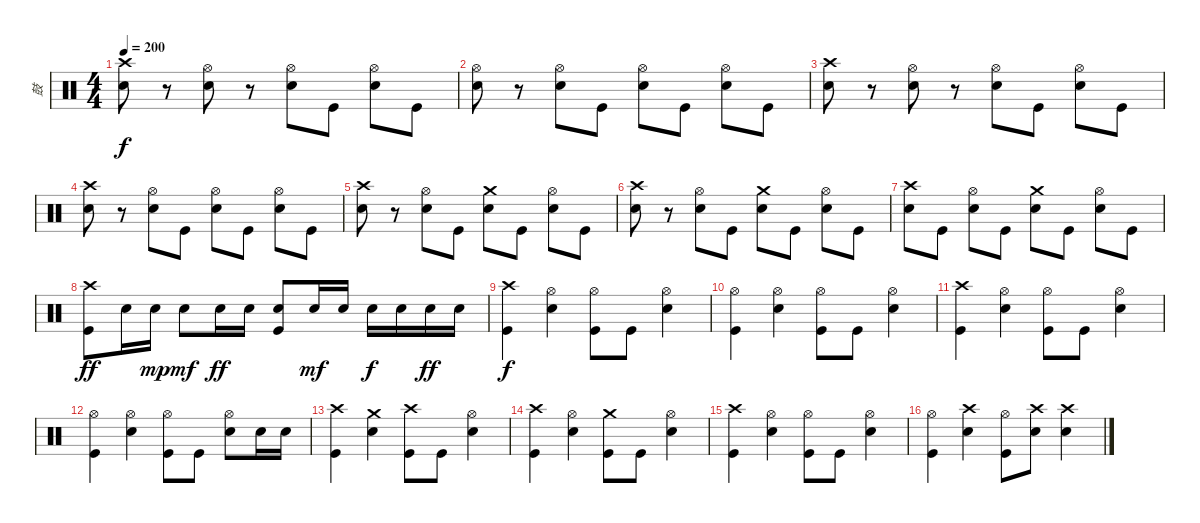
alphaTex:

\track ("鼓" "鼓") {instrument percussion}
\staff {score}
\articulation defaults
\ts (4 4)
\tempo 200
\clef neutral
\ks c
("Crash high (hit)" "Snare (hit) 2").8{dy f} r.8 ("Hi-Hat (open)" "Snare (hit) 2").8 r.8 ("Hi-Hat (open)" "Snare (hit) 2").8 "Kick (hit)".8 ("Hi-Hat (open)" "Snare (hit) 2").8 "Kick (hit)".8 |
("Hi-Hat (open)" "Snare (hit) 2").8 r.8 ("Hi-Hat (open)" "Snare (hit) 2").8 "Kick (hit)".8 ("Hi-Hat (open)" "Snare (hit) 2").8 "Kick (hit)".8 ("Hi-Hat (open)" "Snare (hit) 2").8 "Kick (hit)".8 |
("Crash high (hit)" "Snare (hit) 2").8 r.8 ("Hi-Hat (open)" "Snare (hit) 2").8 r.8 ("Hi-Hat (open)" "Snare (hit) 2").8 "Kick (hit)".8 ("Hi-Hat (open)" "Snare (hit) 2").8 "Kick (hit)".8 |
("Crash high (hit)" "Snare (hit) 2").8 r.8 ("Hi-Hat (open)" "Snare (hit) 2").8 "Kick (hit)".8 ("Hi-Hat (open)" "Snare (hit) 2").8 "Kick (hit)".8 ("Hi-Hat (open)" "Snare (hit) 2").8 "Kick (hit)".8 |
("Crash high (hit)" "Snare (hit) 2").8 r.8 ("Hi-Hat (open)" "Snare (hit) 2").8 "Kick (hit)".8 ("Crash medium (hit)" "Snare (hit) 2").8 "Kick (hit)".8 ("Hi-Hat (open)" "Snare (hit) 2").8 "Kick (hit)".8 |
("Crash high (hit)" "Snare (hit) 2").8 r.8 ("Hi-Hat (open)" "Snare (hit) 2").8 "Kick (hit)".8 ("Crash medium (hit)" "Snare (hit) 2").8 "Kick (hit)".8 ("Hi-Hat (open)" "Snare (hit) 2").8 "Kick (hit)".8 |
("Crash high (hit)" "Snare (hit) 2").8 "Kick (hit)".8 ("Hi-Hat (open)" "Snare (hit) 2").8 "Kick (hit)".8 ("Crash medium (hit)" "Snare (hit) 2").8 "Kick (hit)".8 ("Hi-Hat (open)" "Snare (hit) 2").8 "Kick (hit)".8 |
("Crash high (hit)" "Kick (hit)").8{dy ff} "Snare (hit) 2".16 "Snare (hit) 2".16{dy mp} "Snare (hit) 2".8{dy mf} "Snare (hit) 2".16{dy ff} "Snare (hit) 2".16 ("Snare (hit) 2" "Kick (hit)").8 "Snare (hit) 2".16{dy mf} "Snare (hit) 2".16 "Snare (hit) 2".16{dy f} "Snare (hit) 2".16 "Snare (hit) 2".16{dy ff} "Snare (hit) 2".16 |
("Crash high (hit)" "Kick (hit)").4{dy f} ("Hi-Hat (open)" "Snare (hit) 2").4 ("Hi-Hat (open)" "Kick (hit)").8 "Kick (hit)".8 ("Hi-Hat (open)" "Snare (hit) 2").4 |
("Hi-Hat (open)" "Kick (hit)").4 ("Hi-Hat (open)" "Snare (hit) 2").4 ("Hi-Hat (open)" "Kick (hit)").8 "Kick (hit)".8 ("Hi-Hat (open)" "Snare (hit) 2").4 |
("Crash high (hit)" "Kick (hit)").4 ("Hi-Hat (open)" "Snare (hit) 2").4 ("Hi-Hat (open)" "Kick (hit)").8 "Kick (hit)".8 ("Hi-Hat (open)" "Snare (hit) 2").4 |
("Hi-Hat (open)" "Kick (hit)").4 ("Hi-Hat (open)" "Snare (hit) 2").4 ("Hi-Hat (open)" "Kick (hit)").8 "Kick (hit)".8 ("Hi-Hat (open)" "Snare (hit) 2").8 "Snare (hit) 2".16 "Snare (hit) 2".16 |
("Crash high (hit)" "Kick (hit)").4 ("Crash medium (hit)" "Snare (hit) 2").4 ("Crash high (hit)" "Kick (hit)").8 "Kick (hit)".8 ("Hi-Hat (open)" "Snare (hit) 2").4 |
("Crash high (hit)" "Kick (hit)").4 ("Hi-Hat (open)" "Snare (hit) 2").4 ("Crash medium (hit)" "Kick (hit)").8 "Kick (hit)".8 ("Hi-Hat (open)" "Snare (hit) 2").4 |
("Crash high (hit)" "Kick (hit)").4 ("Hi-Hat (open)" "Snare (hit) 2").4 ("Hi-Hat (open)" "Kick (hit)").8 "Kick (hit)".8 ("Hi-Hat (open)" "Snare (hit) 2").4 |
("Hi-Hat (open)" "Kick (hit)").4 ("Crash high (hit)" "Snare (hit) 2").4 ("Hi-Hat (open)" "Kick (hit)").8 ("Crash high (hit)" "Snare (hit) 2").8 ("Crash high (hit)" "Snare (hit) 2").4
